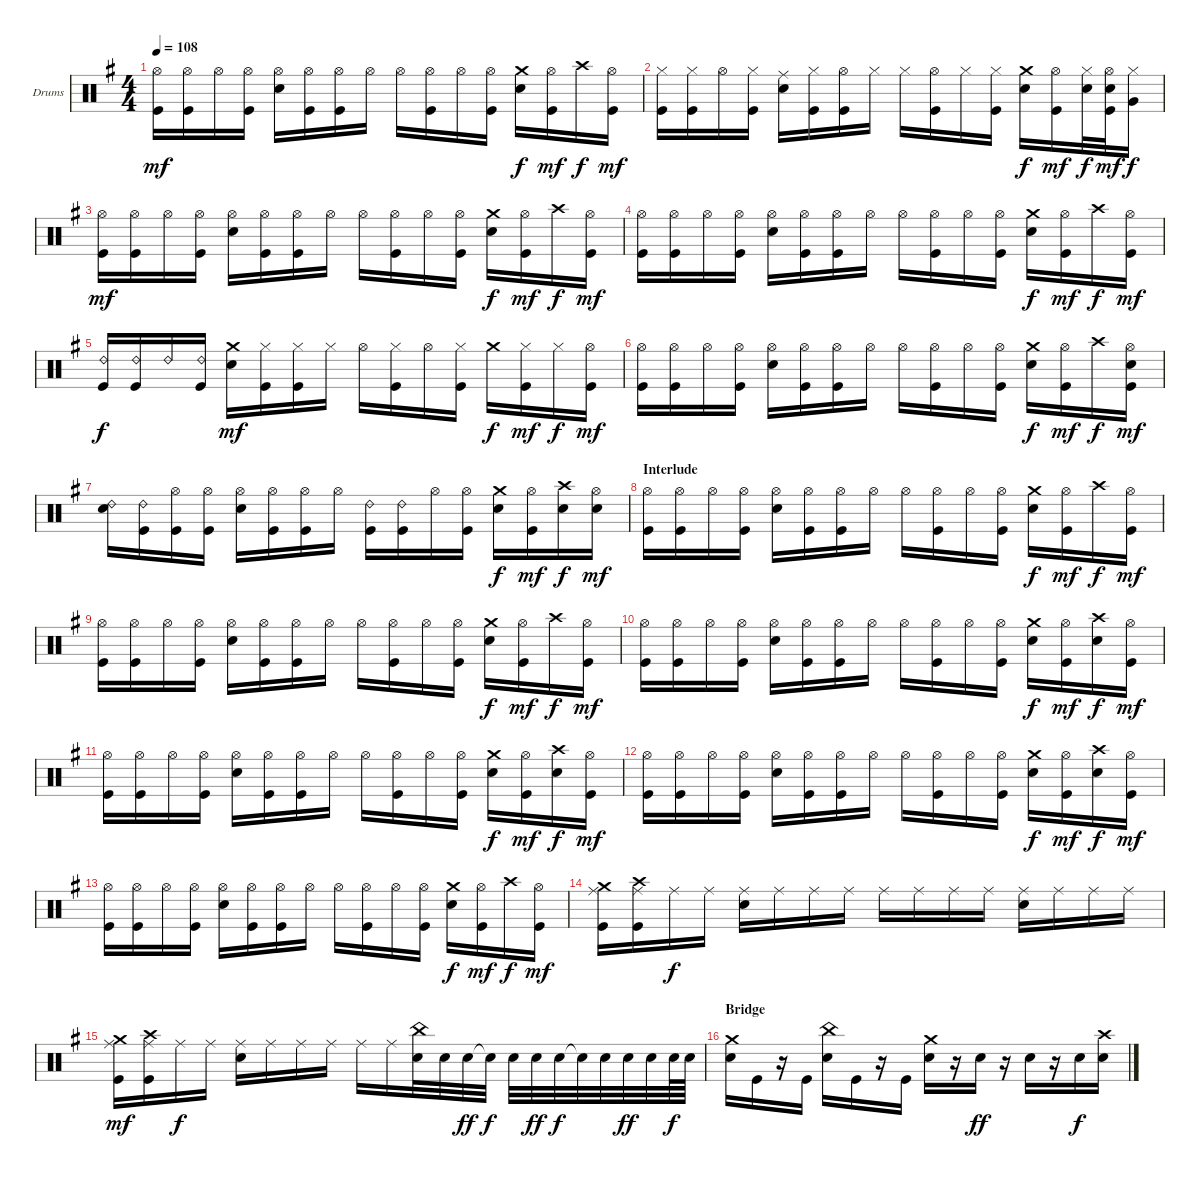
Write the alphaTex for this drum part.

\defaultSystemsLayout 4
\bracketExtendMode groupsimilarinstruments
\firstSystemTrackNameOrientation horizontal
\otherSystemsTrackNameOrientation horizontal
\track ("Drum" "Drums") {instrument percussion}
\staff {score}
\articulation defaults
\ts (4 4)
\tempo 108
\clef neutral
\scale
1.04288
\ks g
("Hi-Hat (open)" "Kick (hit)").16{dy mf} ("Hi-Hat (open)" "Kick (hit)").16 "Hi-Hat (open)".16 ("Hi-Hat (open)" "Kick (hit)").16 ("Hi-Hat (open)" "Snare (hit) 2").16 ("Hi-Hat (open)" "Kick (hit)").16 ("Hi-Hat (open)" "Kick (hit)").16 "Hi-Hat (open)".16 "Hi-Hat (open)".16 ("Hi-Hat (open)" "Kick (hit)").16 "Hi-Hat (open)".16 ("Hi-Hat (open)" "Kick (hit)").16 ("Crash medium (hit)" "Snare (hit) 2").16{dy f} ("Hi-Hat (open)" "Kick (hit)").16{dy mf} "Crash high (hit)".16{dy f} ("Hi-Hat (open)" "Kick (hit)").16{dy mf} |
\scale
0.957125 ("Hi-Hat (closed)" "Kick (hit)").16 ("Hi-Hat (closed)" "Kick (hit)").16 "Hi-Hat (open)".16 ("Hi-Hat (closed)" "Kick (hit)").16 ("Ride (middle)" "Snare (hit) 2").16 ("Hi-Hat (closed)" "Kick (hit)").16 ("Hi-Hat (open)" "Kick (hit)").16 "Hi-Hat (closed)".16 "Hi-Hat (closed)".16 ("Hi-Hat (open)" "Kick (hit)").16 "Hi-Hat (closed)".16 ("Hi-Hat (closed)" "Kick (hit)").16 ("Crash medium (hit)" "Snare (hit) 2").16{dy f} ("Hi-Hat (open)" "Kick (hit)").16{dy mf} ("Hi-Hat (closed)" "Snare (hit) 2").32{dy f} ("Hi-Hat (open)" "Snare (hit) 2" "Kick (hit)").32{dy mf} ("Hi-Hat (closed)" "Very Low Tom (hit)").16{dy f} |
\scale
1.04288 ("Hi-Hat (open)" "Kick (hit)").16{dy mf} ("Hi-Hat (open)" "Kick (hit)").16 "Hi-Hat (open)".16 ("Hi-Hat (open)" "Kick (hit)").16 ("Hi-Hat (open)" "Snare (hit) 2").16 ("Hi-Hat (open)" "Kick (hit)").16 ("Hi-Hat (open)" "Kick (hit)").16 "Hi-Hat (open)".16 "Hi-Hat (open)".16 ("Hi-Hat (open)" "Kick (hit)").16 "Hi-Hat (open)".16 ("Hi-Hat (open)" "Kick (hit)").16 ("Crash medium (hit)" "Snare (hit) 2").16{dy f} ("Hi-Hat (open)" "Kick (hit)").16{dy mf} "Crash high (hit)".16{dy f} ("Hi-Hat (open)" "Kick (hit)").16{dy mf} |
\scale
0.957125 ("Hi-Hat (open)" "Kick (hit)").16 ("Hi-Hat (open)" "Kick (hit)").16 "Hi-Hat (open)".16 ("Hi-Hat (open)" "Kick (hit)").16 ("Hi-Hat (open)" "Snare (hit) 2").16 ("Hi-Hat (open)" "Kick (hit)").16 ("Hi-Hat (open)" "Kick (hit)").16 "Hi-Hat (open)".16 "Hi-Hat (open)".16 ("Hi-Hat (open)" "Kick (hit)").16 "Hi-Hat (open)".16 ("Hi-Hat (open)" "Kick (hit)").16 ("Crash medium (hit)" "Snare (hit) 2").16{dy f} ("Hi-Hat (open)" "Kick (hit)").16{dy mf} "Crash high (hit)".16{dy f} ("Hi-Hat (open)" "Kick (hit)").16{dy mf} |
\scale
1.04288 ("Ride (bell) 2" "Kick (hit)").16{dy f} ("Ride (bell) 2" "Kick (hit)").16 "Ride (bell) 2".16 ("Ride (bell) 2" "Kick (hit)").16 ("Crash medium (hit)" "Snare (hit) 2").16{dy mf} ("Hi-Hat (closed)" "Kick (hit)").16 ("Hi-Hat (closed)" "Kick (hit)").16 "Hi-Hat (closed)".16 "Hi-Hat (open)".16 ("Hi-Hat (closed)" "Kick (hit)").16 "Hi-Hat (open)".16 ("Hi-Hat (closed)" "Kick (hit)").16 "Crash medium (hit)".16{dy f} ("Hi-Hat (closed)" "Kick (hit)").16{dy mf} "Hi-Hat (closed)".16{dy f} ("Hi-Hat (open)" "Kick (hit)").16{dy mf} |
\scale
0.957125 ("Hi-Hat (open)" "Kick (hit)").16 ("Hi-Hat (open)" "Kick (hit)").16 "Hi-Hat (open)".16 ("Hi-Hat (open)" "Kick (hit)").16 ("Hi-Hat (open)" "Snare (hit) 2").16 ("Hi-Hat (open)" "Kick (hit)").16 ("Hi-Hat (open)" "Kick (hit)").16 "Hi-Hat (open)".16 "Hi-Hat (open)".16 ("Hi-Hat (open)" "Kick (hit)").16 "Hi-Hat (open)".16 ("Hi-Hat (open)" "Kick (hit)").16 ("Crash medium (hit)" "Snare (hit) 2").16{dy f} ("Hi-Hat (open)" "Kick (hit)").16{dy mf} "Crash high (hit)".16{dy f} ("Hi-Hat (open)" "Snare (hit) 2" "Kick (hit)").16{dy mf} |
\scale
1.04288 ("Ride (bell) 2" "Snare (hit) 2").16 ("Ride (bell) 2" "Kick (hit)").16 ("Hi-Hat (open)" "Kick (hit)").16 ("Hi-Hat (open)" "Kick (hit)").16 ("Hi-Hat (open)" "Snare (hit) 2").16 ("Hi-Hat (open)" "Kick (hit)").16 ("Hi-Hat (open)" "Kick (hit)").16 "Hi-Hat (open)".16 ("Ride (bell) 2" "Kick (hit)").16 ("Ride (bell) 2" "Kick (hit)").16 "Hi-Hat (open)".16 ("Hi-Hat (open)" "Kick (hit)").16 ("Crash medium (hit)" "Snare (hit) 2").16{dy f} ("Hi-Hat (open)" "Kick (hit)").16{dy mf} ("Crash high (hit)" "Snare (hit) 2").16{dy f} ("Hi-Hat (open)" "Snare (hit) 2").16{dy mf} |
\section ("" "Interlude")
\scale
0.957125 ("Hi-Hat (open)" "Kick (hit)").16 ("Hi-Hat (open)" "Kick (hit)").16 "Hi-Hat (open)".16 ("Hi-Hat (open)" "Kick (hit)").16 ("Hi-Hat (open)" "Snare (hit) 2").16 ("Hi-Hat (open)" "Kick (hit)").16 ("Hi-Hat (open)" "Kick (hit)").16 "Hi-Hat (open)".16 "Hi-Hat (open)".16 ("Hi-Hat (open)" "Kick (hit)").16 "Hi-Hat (open)".16 ("Hi-Hat (open)" "Kick (hit)").16 ("Crash medium (hit)" "Snare (hit) 2").16{dy f} ("Hi-Hat (open)" "Kick (hit)").16{dy mf} "Crash high (hit)".16{dy f} ("Hi-Hat (open)" "Kick (hit)").16{dy mf} |
\scale
1.04288 ("Hi-Hat (open)" "Kick (hit)").16 ("Hi-Hat (open)" "Kick (hit)").16 "Hi-Hat (open)".16 ("Hi-Hat (open)" "Kick (hit)").16 ("Hi-Hat (open)" "Snare (hit) 2").16 ("Hi-Hat (open)" "Kick (hit)").16 ("Hi-Hat (open)" "Kick (hit)").16 "Hi-Hat (open)".16 "Hi-Hat (open)".16 ("Hi-Hat (open)" "Kick (hit)").16 "Hi-Hat (open)".16 ("Hi-Hat (open)" "Kick (hit)").16 ("Crash medium (hit)" "Snare (hit) 2").16{dy f} ("Hi-Hat (open)" "Kick (hit)").16{dy mf} "Crash high (hit)".16{dy f} ("Hi-Hat (open)" "Kick (hit)").16{dy mf} |
\scale
0.957125 ("Hi-Hat (open)" "Kick (hit)").16 ("Hi-Hat (open)" "Kick (hit)").16 "Hi-Hat (open)".16 ("Hi-Hat (open)" "Kick (hit)").16 ("Hi-Hat (open)" "Snare (hit) 2").16 ("Hi-Hat (open)" "Kick (hit)").16 ("Hi-Hat (open)" "Kick (hit)").16 "Hi-Hat (open)".16 "Hi-Hat (open)".16 ("Hi-Hat (open)" "Kick (hit)").16 "Hi-Hat (open)".16 ("Hi-Hat (open)" "Kick (hit)").16 ("Crash medium (hit)" "Snare (hit) 2").16{dy f} ("Hi-Hat (open)" "Kick (hit)").16{dy mf} ("Crash high (hit)" "Snare (hit) 2").16{dy f} ("Hi-Hat (open)" "Kick (hit)").16{dy mf} |
\scale
1.04288 ("Hi-Hat (open)" "Kick (hit)").16 ("Hi-Hat (open)" "Kick (hit)").16 "Hi-Hat (open)".16 ("Hi-Hat (open)" "Kick (hit)").16 ("Hi-Hat (open)" "Snare (hit) 2").16 ("Hi-Hat (open)" "Kick (hit)").16 ("Hi-Hat (open)" "Kick (hit)").16 "Hi-Hat (open)".16 "Hi-Hat (open)".16 ("Hi-Hat (open)" "Kick (hit)").16 "Hi-Hat (open)".16 ("Hi-Hat (open)" "Kick (hit)").16 ("Crash medium (hit)" "Snare (hit) 2").16{dy f} ("Hi-Hat (open)" "Kick (hit)").16{dy mf} ("Crash high (hit)" "Snare (hit) 2").16{dy f} ("Hi-Hat (open)" "Kick (hit)").16{dy mf} |
\scale
0.957125 ("Hi-Hat (open)" "Kick (hit)").16 ("Hi-Hat (open)" "Kick (hit)").16 "Hi-Hat (open)".16 ("Hi-Hat (open)" "Kick (hit)").16 ("Hi-Hat (open)" "Snare (hit) 2").16 ("Hi-Hat (open)" "Kick (hit)").16 ("Hi-Hat (open)" "Kick (hit)").16 "Hi-Hat (open)".16 "Hi-Hat (open)".16 ("Hi-Hat (open)" "Kick (hit)").16 "Hi-Hat (open)".16 ("Hi-Hat (open)" "Kick (hit)").16 ("Crash medium (hit)" "Snare (hit) 2").16{dy f} ("Hi-Hat (open)" "Kick (hit)").16{dy mf} ("Crash high (hit)" "Snare (hit) 2").16{dy f} ("Hi-Hat (open)" "Kick (hit)").16{dy mf} |
\scale
1.04288 ("Hi-Hat (open)" "Kick (hit)").16 ("Hi-Hat (open)" "Kick (hit)").16 "Hi-Hat (open)".16 ("Hi-Hat (open)" "Kick (hit)").16 ("Hi-Hat (open)" "Snare (hit) 2").16 ("Hi-Hat (open)" "Kick (hit)").16 ("Hi-Hat (open)" "Kick (hit)").16 "Hi-Hat (open)".16 "Hi-Hat (open)".16 ("Hi-Hat (open)" "Kick (hit)").16 "Hi-Hat (open)".16 ("Hi-Hat (open)" "Kick (hit)").16 ("Crash medium (hit)" "Snare (hit) 2").16{dy f} ("Hi-Hat (open)" "Kick (hit)").16{dy mf} "Crash high (hit)".16{dy f} ("Hi-Hat (open)" "Kick (hit)").16{dy mf} |
\scale
0.957125 ("Crash medium (hit)" "Ride (middle)" "Kick (hit)").16 ("Crash high (hit)" "Ride (middle)" "Kick (hit)").16 "Ride (middle)".16{dy f} "Ride (middle)".16 ("Ride (middle)" "Snare (hit) 2").16 "Ride (middle)".16 "Ride (middle)".16 "Ride (middle)".16 "Ride (middle)".16 "Ride (middle)".16 "Ride (middle)".16 "Ride (middle)".16 ("Ride (middle)" "Snare (hit) 2").16 "Ride (middle)".16 "Ride (middle)".16 "Ride (middle)".16 |
\scale
1.04288 ("Crash medium (hit)" "Ride (middle)" "Kick (hit)").16{dy mf} ("Crash high (hit)" "Ride (middle)" "Kick (hit)").16 "Ride (middle)".16{dy f} "Ride (middle)".16 ("Ride (middle)" "Snare (hit) 2").16 "Ride (middle)".16 "Ride (middle)".16 "Ride (middle)".16 "Ride (middle)".16 "Ride (middle)".16 ("China (hit)" "Snare (hit) 2").32 "Snare (hit) 2".32 "Snare (hit) 2".32{dy ff} "Snare (hit) 2"{t}.32{dy f} "Snare (hit) 2".32 "Snare (hit) 2".32{dy ff} "Snare (hit) 2".32{dy f} "Snare (hit) 2"{t}.32 "Snare (hit) 2".32 "Snare (hit) 2".32{dy ff} "Snare (hit) 2".32 "Snare (hit) 2".64{dy f} "Snare (hit) 2".64 |
\section ("" "Bridge")
\scale
0.957125 ("Crash medium (hit)" "Snare (hit) 2").16 "Kick (hit)".16 r.16 "Kick (hit)".16 ("China (hit)" "Snare (hit) 2").16 "Kick (hit)".16 r.16 "Kick (hit)".16 ("Crash medium (hit)" "Snare (hit) 2").16 r.16 "Snare (hit) 2".16{dy ff} r.16 "Snare (hit) 2".16 r.16 "Snare (hit) 2".16{dy f} ("Crash high (hit)" "Snare (hit) 2").16
